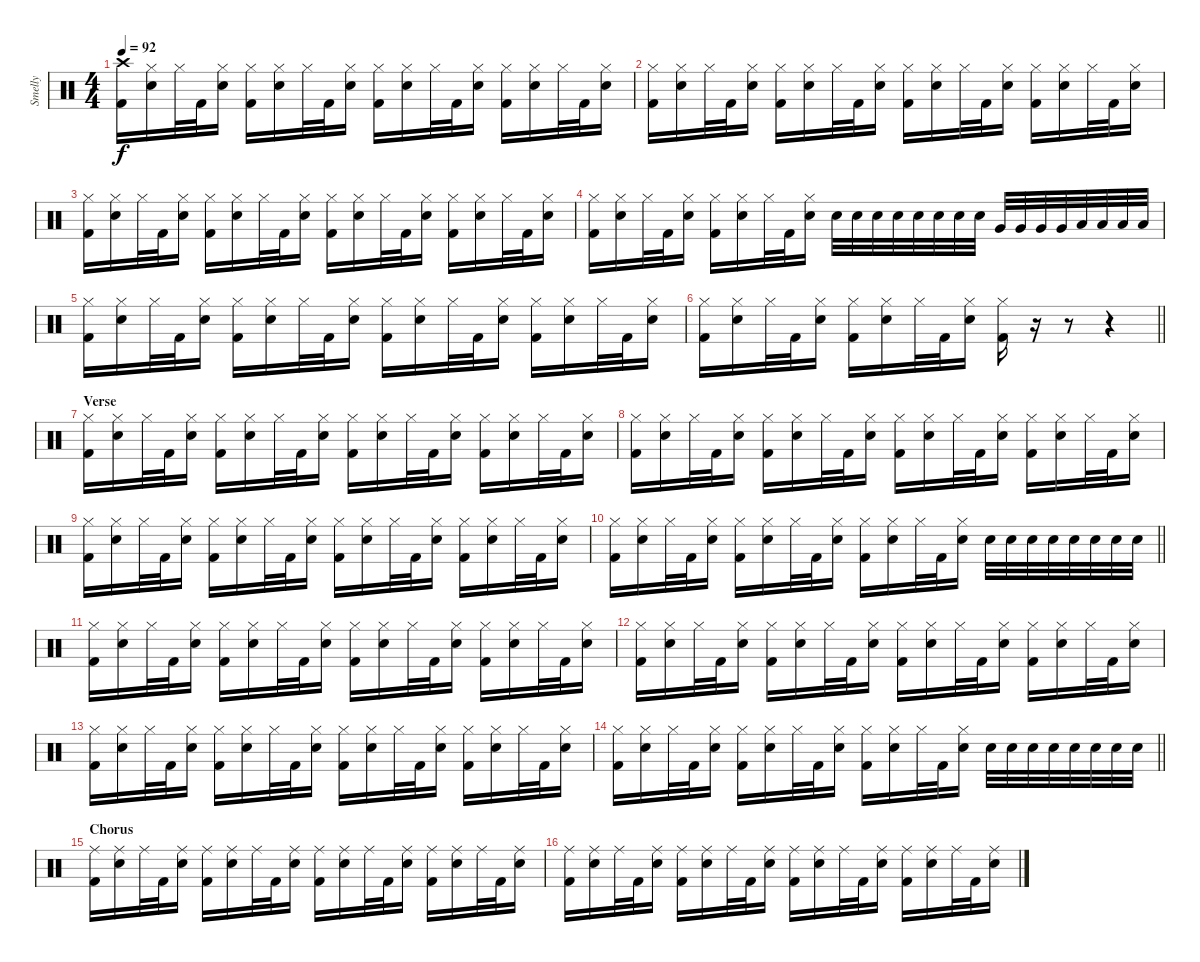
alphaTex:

\track ("Smelly" "Smelly") {instrument percussion}
\staff {score}
\articulation defaults
\ts (4 4)
\tempo 92
\clef neutral
\ks c
("Crash high (hit)" "Kick (hit) 2").16{dy f} ("Hi-Hat (closed)" "Electric Snare (hit)").16 "Hi-Hat (closed)".32 "Kick (hit) 2".32 ("Hi-Hat (closed)" "Electric Snare (hit)").16 ("Hi-Hat (closed)" "Kick (hit) 2").16 ("Hi-Hat (closed)" "Electric Snare (hit)").16 "Hi-Hat (closed)".32 "Kick (hit) 2".32 ("Hi-Hat (closed)" "Electric Snare (hit)").16 ("Hi-Hat (closed)" "Kick (hit) 2").16 ("Hi-Hat (closed)" "Electric Snare (hit)").16 "Hi-Hat (closed)".32 "Kick (hit) 2".32 ("Hi-Hat (closed)" "Electric Snare (hit)").16 ("Hi-Hat (closed)" "Kick (hit) 2").16 ("Hi-Hat (closed)" "Electric Snare (hit)").16 "Hi-Hat (closed)".32 "Kick (hit) 2".32 ("Hi-Hat (closed)" "Electric Snare (hit)").16 |
("Hi-Hat (closed)" "Kick (hit) 2").16 ("Hi-Hat (closed)" "Electric Snare (hit)").16 "Hi-Hat (closed)".32 "Kick (hit) 2".32 ("Hi-Hat (closed)" "Electric Snare (hit)").16 ("Hi-Hat (closed)" "Kick (hit) 2").16 ("Hi-Hat (closed)" "Electric Snare (hit)").16 "Hi-Hat (closed)".32 "Kick (hit) 2".32 ("Hi-Hat (closed)" "Electric Snare (hit)").16 ("Hi-Hat (closed)" "Kick (hit) 2").16 ("Hi-Hat (closed)" "Electric Snare (hit)").16 "Hi-Hat (closed)".32 "Kick (hit) 2".32 ("Hi-Hat (closed)" "Electric Snare (hit)").16 ("Hi-Hat (closed)" "Kick (hit) 2").16 ("Hi-Hat (closed)" "Electric Snare (hit)").16 "Hi-Hat (closed)".32 "Kick (hit) 2".32 ("Hi-Hat (closed)" "Electric Snare (hit)").16 |
("Hi-Hat (closed)" "Kick (hit) 2").16 ("Hi-Hat (closed)" "Electric Snare (hit)").16 "Hi-Hat (closed)".32 "Kick (hit) 2".32 ("Hi-Hat (closed)" "Electric Snare (hit)").16 ("Hi-Hat (closed)" "Kick (hit) 2").16 ("Hi-Hat (closed)" "Electric Snare (hit)").16 "Hi-Hat (closed)".32 "Kick (hit) 2".32 ("Hi-Hat (closed)" "Electric Snare (hit)").16 ("Hi-Hat (closed)" "Kick (hit) 2").16 ("Hi-Hat (closed)" "Electric Snare (hit)").16 "Hi-Hat (closed)".32 "Kick (hit) 2".32 ("Hi-Hat (closed)" "Electric Snare (hit)").16 ("Hi-Hat (closed)" "Kick (hit) 2").16 ("Hi-Hat (closed)" "Electric Snare (hit)").16 "Hi-Hat (closed)".32 "Kick (hit) 2".32 ("Hi-Hat (closed)" "Electric Snare (hit)").16 |
("Hi-Hat (closed)" "Kick (hit) 2").16 ("Hi-Hat (closed)" "Electric Snare (hit)").16 "Hi-Hat (closed)".32 "Kick (hit) 2".32 ("Hi-Hat (closed)" "Electric Snare (hit)").16 ("Hi-Hat (closed)" "Kick (hit) 2").16 ("Hi-Hat (closed)" "Electric Snare (hit)").16 "Hi-Hat (closed)".32 "Kick (hit) 2".32 ("Hi-Hat (closed)" "Electric Snare (hit)").16 "Electric Snare (hit)".32 "Electric Snare (hit)".32 "Electric Snare (hit)".32 "Electric Snare (hit)".32 "Electric Snare (hit)".32 "Electric Snare (hit)".32 "Electric Snare (hit)".32 "Electric Snare (hit)".32 "Very Low Tom (hit)".32 "Very Low Tom (hit)".32 "Very Low Tom (hit)".32 "Very Low Tom (hit)".32 "Low Floor Tom (hit)".32 "Low Floor Tom (hit)".32 "Low Floor Tom (hit)".32 "Low Floor Tom (hit)".32 |
("Hi-Hat (closed)" "Kick (hit) 2").16 ("Hi-Hat (closed)" "Electric Snare (hit)").16 "Hi-Hat (closed)".32 "Kick (hit) 2".32 ("Hi-Hat (closed)" "Electric Snare (hit)").16 ("Hi-Hat (closed)" "Kick (hit) 2").16 ("Hi-Hat (closed)" "Electric Snare (hit)").16 "Hi-Hat (closed)".32 "Kick (hit) 2".32 ("Hi-Hat (closed)" "Electric Snare (hit)").16 ("Hi-Hat (closed)" "Kick (hit) 2").16 ("Hi-Hat (closed)" "Electric Snare (hit)").16 "Hi-Hat (closed)".32 "Kick (hit) 2".32 ("Hi-Hat (closed)" "Electric Snare (hit)").16 ("Hi-Hat (closed)" "Kick (hit) 2").16 ("Hi-Hat (closed)" "Electric Snare (hit)").16 "Hi-Hat (closed)".32 "Kick (hit) 2".32 ("Hi-Hat (closed)" "Electric Snare (hit)").16 |
\barLineRight lightlight
("Hi-Hat (closed)" "Kick (hit) 2").16 ("Hi-Hat (closed)" "Electric Snare (hit)").16 "Hi-Hat (closed)".32 "Kick (hit) 2".32 ("Hi-Hat (closed)" "Electric Snare (hit)").16 ("Hi-Hat (closed)" "Kick (hit) 2").16 ("Hi-Hat (closed)" "Electric Snare (hit)").16 "Hi-Hat (closed)".32 "Kick (hit) 2".32 ("Hi-Hat (closed)" "Electric Snare (hit)").16 ("Hi-Hat (closed)" "Kick (hit) 2").16 r.16 r.8 r.4 |
\section ("" "Verse")
("Hi-Hat (closed)" "Kick (hit) 2").16 ("Hi-Hat (closed)" "Electric Snare (hit)").16 "Hi-Hat (closed)".32 "Kick (hit) 2".32 ("Hi-Hat (closed)" "Electric Snare (hit)").16 ("Hi-Hat (closed)" "Kick (hit) 2").16 ("Hi-Hat (closed)" "Electric Snare (hit)").16 "Hi-Hat (closed)".32 "Kick (hit) 2".32 ("Hi-Hat (closed)" "Electric Snare (hit)").16 ("Hi-Hat (closed)" "Kick (hit) 2").16 ("Hi-Hat (closed)" "Electric Snare (hit)").16 "Hi-Hat (closed)".32 "Kick (hit) 2".32 ("Hi-Hat (closed)" "Electric Snare (hit)").16 ("Hi-Hat (closed)" "Kick (hit) 2").16 ("Hi-Hat (closed)" "Electric Snare (hit)").16 "Hi-Hat (closed)".32 "Kick (hit) 2".32 ("Hi-Hat (closed)" "Electric Snare (hit)").16 |
("Hi-Hat (closed)" "Kick (hit) 2").16 ("Hi-Hat (closed)" "Electric Snare (hit)").16 "Hi-Hat (closed)".32 "Kick (hit) 2".32 ("Hi-Hat (closed)" "Electric Snare (hit)").16 ("Hi-Hat (closed)" "Kick (hit) 2").16 ("Hi-Hat (closed)" "Electric Snare (hit)").16 "Hi-Hat (closed)".32 "Kick (hit) 2".32 ("Hi-Hat (closed)" "Electric Snare (hit)").16 ("Hi-Hat (closed)" "Kick (hit) 2").16 ("Hi-Hat (closed)" "Electric Snare (hit)").16 "Hi-Hat (closed)".32 "Kick (hit) 2".32 ("Hi-Hat (closed)" "Electric Snare (hit)").16 ("Hi-Hat (closed)" "Kick (hit) 2").16 ("Hi-Hat (closed)" "Electric Snare (hit)").16 "Hi-Hat (closed)".32 "Kick (hit) 2".32 ("Hi-Hat (closed)" "Electric Snare (hit)").16 |
("Hi-Hat (closed)" "Kick (hit) 2").16 ("Hi-Hat (closed)" "Electric Snare (hit)").16 "Hi-Hat (closed)".32 "Kick (hit) 2".32 ("Hi-Hat (closed)" "Electric Snare (hit)").16 ("Hi-Hat (closed)" "Kick (hit) 2").16 ("Hi-Hat (closed)" "Electric Snare (hit)").16 "Hi-Hat (closed)".32 "Kick (hit) 2".32 ("Hi-Hat (closed)" "Electric Snare (hit)").16 ("Hi-Hat (closed)" "Kick (hit) 2").16 ("Hi-Hat (closed)" "Electric Snare (hit)").16 "Hi-Hat (closed)".32 "Kick (hit) 2".32 ("Hi-Hat (closed)" "Electric Snare (hit)").16 ("Hi-Hat (closed)" "Kick (hit) 2").16 ("Hi-Hat (closed)" "Electric Snare (hit)").16 "Hi-Hat (closed)".32 "Kick (hit) 2".32 ("Hi-Hat (closed)" "Electric Snare (hit)").16 |
\barLineRight lightlight
("Hi-Hat (closed)" "Kick (hit) 2").16 ("Hi-Hat (closed)" "Electric Snare (hit)").16 "Hi-Hat (closed)".32 "Kick (hit) 2".32 ("Hi-Hat (closed)" "Electric Snare (hit)").16 ("Hi-Hat (closed)" "Kick (hit) 2").16 ("Hi-Hat (closed)" "Electric Snare (hit)").16 "Hi-Hat (closed)".32 "Kick (hit) 2".32 ("Hi-Hat (closed)" "Electric Snare (hit)").16 ("Hi-Hat (closed)" "Kick (hit) 2").16 ("Hi-Hat (closed)" "Electric Snare (hit)").16 "Hi-Hat (closed)".32 "Kick (hit) 2".32 ("Hi-Hat (closed)" "Electric Snare (hit)").16 "Electric Snare (hit)".32 "Electric Snare (hit)".32 "Electric Snare (hit)".32 "Electric Snare (hit)".32 "Electric Snare (hit)".32 "Electric Snare (hit)".32 "Electric Snare (hit)".32 "Electric Snare (hit)".32 |
("Hi-Hat (closed)" "Kick (hit) 2").16 ("Hi-Hat (closed)" "Electric Snare (hit)").16 "Hi-Hat (closed)".32 "Kick (hit) 2".32 ("Hi-Hat (closed)" "Electric Snare (hit)").16 ("Hi-Hat (closed)" "Kick (hit) 2").16 ("Hi-Hat (closed)" "Electric Snare (hit)").16 "Hi-Hat (closed)".32 "Kick (hit) 2".32 ("Hi-Hat (closed)" "Electric Snare (hit)").16 ("Hi-Hat (closed)" "Kick (hit) 2").16 ("Hi-Hat (closed)" "Electric Snare (hit)").16 "Hi-Hat (closed)".32 "Kick (hit) 2".32 ("Hi-Hat (closed)" "Electric Snare (hit)").16 ("Hi-Hat (closed)" "Kick (hit) 2").16 ("Hi-Hat (closed)" "Electric Snare (hit)").16 "Hi-Hat (closed)".32 "Kick (hit) 2".32 ("Hi-Hat (closed)" "Electric Snare (hit)").16 |
("Hi-Hat (closed)" "Kick (hit) 2").16 ("Hi-Hat (closed)" "Electric Snare (hit)").16 "Hi-Hat (closed)".32 "Kick (hit) 2".32 ("Hi-Hat (closed)" "Electric Snare (hit)").16 ("Hi-Hat (closed)" "Kick (hit) 2").16 ("Hi-Hat (closed)" "Electric Snare (hit)").16 "Hi-Hat (closed)".32 "Kick (hit) 2".32 ("Hi-Hat (closed)" "Electric Snare (hit)").16 ("Hi-Hat (closed)" "Kick (hit) 2").16 ("Hi-Hat (closed)" "Electric Snare (hit)").16 "Hi-Hat (closed)".32 "Kick (hit) 2".32 ("Hi-Hat (closed)" "Electric Snare (hit)").16 ("Hi-Hat (closed)" "Kick (hit) 2").16 ("Hi-Hat (closed)" "Electric Snare (hit)").16 "Hi-Hat (closed)".32 "Kick (hit) 2".32 ("Hi-Hat (closed)" "Electric Snare (hit)").16 |
("Hi-Hat (closed)" "Kick (hit) 2").16 ("Hi-Hat (closed)" "Electric Snare (hit)").16 "Hi-Hat (closed)".32 "Kick (hit) 2".32 ("Hi-Hat (closed)" "Electric Snare (hit)").16 ("Hi-Hat (closed)" "Kick (hit) 2").16 ("Hi-Hat (closed)" "Electric Snare (hit)").16 "Hi-Hat (closed)".32 "Kick (hit) 2".32 ("Hi-Hat (closed)" "Electric Snare (hit)").16 ("Hi-Hat (closed)" "Kick (hit) 2").16 ("Hi-Hat (closed)" "Electric Snare (hit)").16 "Hi-Hat (closed)".32 "Kick (hit) 2".32 ("Hi-Hat (closed)" "Electric Snare (hit)").16 ("Hi-Hat (closed)" "Kick (hit) 2").16 ("Hi-Hat (closed)" "Electric Snare (hit)").16 "Hi-Hat (closed)".32 "Kick (hit) 2".32 ("Hi-Hat (closed)" "Electric Snare (hit)").16 |
\barLineRight lightlight
("Hi-Hat (closed)" "Kick (hit) 2").16 ("Hi-Hat (closed)" "Electric Snare (hit)").16 "Hi-Hat (closed)".32 "Kick (hit) 2".32 ("Hi-Hat (closed)" "Electric Snare (hit)").16 ("Hi-Hat (closed)" "Kick (hit) 2").16 ("Hi-Hat (closed)" "Electric Snare (hit)").16 "Hi-Hat (closed)".32 "Kick (hit) 2".32 ("Hi-Hat (closed)" "Electric Snare (hit)").16 ("Hi-Hat (closed)" "Kick (hit) 2").16 ("Hi-Hat (closed)" "Electric Snare (hit)").16 "Hi-Hat (closed)".32 "Kick (hit) 2".32 ("Hi-Hat (closed)" "Electric Snare (hit)").16 "Electric Snare (hit)".32 "Electric Snare (hit)".32 "Electric Snare (hit)".32 "Electric Snare (hit)".32 "Electric Snare (hit)".32 "Electric Snare (hit)".32 "Electric Snare (hit)".32 "Electric Snare (hit)".32 |
\section ("" "Chorus")
("Ride (middle)" "Kick (hit) 2").16 ("Ride (middle)" "Electric Snare (hit)").16 "Ride (middle)".32 "Kick (hit) 2".32 ("Ride (middle)" "Electric Snare (hit)").16 ("Ride (middle)" "Kick (hit) 2").16 ("Ride (middle)" "Electric Snare (hit)").16 "Ride (middle)".32 "Kick (hit) 2".32 ("Ride (middle)" "Electric Snare (hit)").16 ("Ride (middle)" "Kick (hit) 2").16 ("Ride (middle)" "Electric Snare (hit)").16 "Ride (middle)".32 "Kick (hit) 2".32 ("Ride (middle)" "Electric Snare (hit)").16 ("Ride (middle)" "Kick (hit) 2").16 ("Ride (middle)" "Electric Snare (hit)").16 "Ride (middle)".32 "Kick (hit) 2".32 ("Ride (middle)" "Electric Snare (hit)").16 |
("Ride (middle)" "Kick (hit) 2").16 ("Ride (middle)" "Electric Snare (hit)").16 "Ride (middle)".32 "Kick (hit) 2".32 ("Ride (middle)" "Electric Snare (hit)").16 ("Ride (middle)" "Kick (hit) 2").16 ("Ride (middle)" "Electric Snare (hit)").16 "Ride (middle)".32 "Kick (hit) 2".32 ("Ride (middle)" "Electric Snare (hit)").16 ("Ride (middle)" "Kick (hit) 2").16 ("Ride (middle)" "Electric Snare (hit)").16 "Ride (middle)".32 "Kick (hit) 2".32 ("Ride (middle)" "Electric Snare (hit)").16 ("Ride (middle)" "Kick (hit) 2").16 ("Ride (middle)" "Electric Snare (hit)").16 "Ride (middle)".32 "Kick (hit) 2".32 ("Ride (middle)" "Electric Snare (hit)").16
